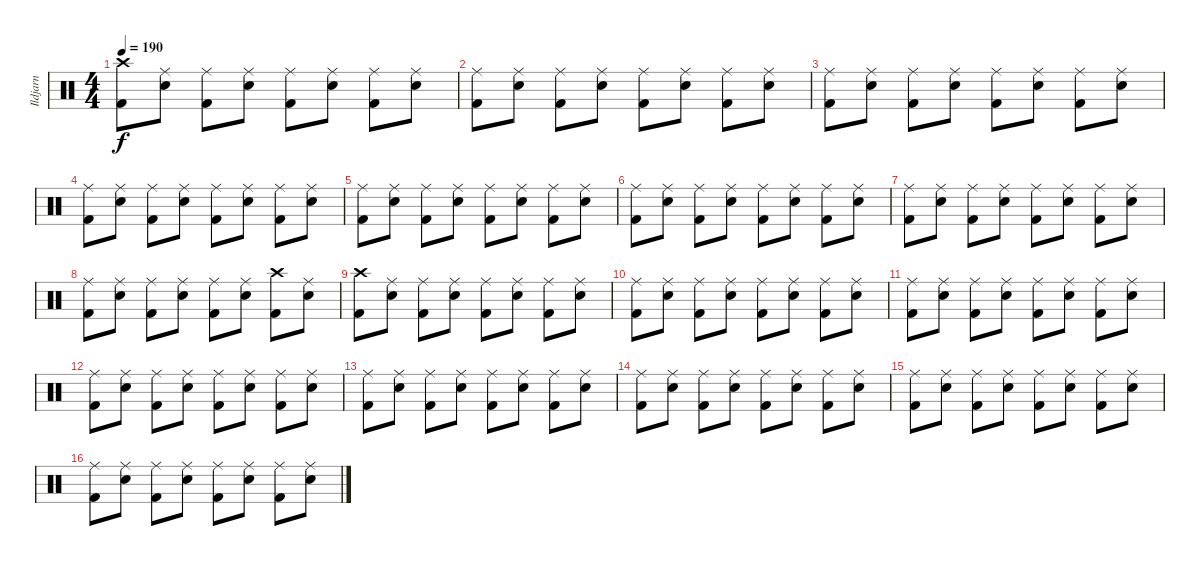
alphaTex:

\track ("Ildjarn" "Ildjarn") {instrument percussion}
\staff {score}
\articulation defaults
\ts (4 4)
\tempo 190
\clef neutral
\ks c
("Crash high (hit)" "Kick (hit) 2").8{dy f} ("Ride (middle)" "Snare (hit) 2").8 ("Ride (middle)" "Kick (hit) 2").8 ("Ride (middle)" "Snare (hit) 2").8 ("Ride (middle)" "Kick (hit) 2").8 ("Ride (middle)" "Snare (hit) 2").8 ("Ride (middle)" "Kick (hit) 2").8 ("Ride (middle)" "Snare (hit) 2").8 |
("Ride (middle)" "Kick (hit) 2").8 ("Ride (middle)" "Snare (hit) 2").8 ("Ride (middle)" "Kick (hit) 2").8 ("Ride (middle)" "Snare (hit) 2").8 ("Ride (middle)" "Kick (hit) 2").8 ("Ride (middle)" "Snare (hit) 2").8 ("Ride (middle)" "Kick (hit) 2").8 ("Ride (middle)" "Snare (hit) 2").8 |
("Ride (middle)" "Kick (hit) 2").8 ("Ride (middle)" "Snare (hit) 2").8 ("Ride (middle)" "Kick (hit) 2").8 ("Ride (middle)" "Snare (hit) 2").8 ("Ride (middle)" "Kick (hit) 2").8 ("Ride (middle)" "Snare (hit) 2").8 ("Ride (middle)" "Kick (hit) 2").8 ("Ride (middle)" "Snare (hit) 2").8 |
("Ride (middle)" "Kick (hit) 2").8 ("Ride (middle)" "Snare (hit) 2").8 ("Ride (middle)" "Kick (hit) 2").8 ("Ride (middle)" "Snare (hit) 2").8 ("Ride (middle)" "Kick (hit) 2").8 ("Ride (middle)" "Snare (hit) 2").8 ("Ride (middle)" "Kick (hit) 2").8 ("Ride (middle)" "Snare (hit) 2").8 |
("Ride (middle)" "Kick (hit) 2").8 ("Ride (middle)" "Snare (hit) 2").8 ("Ride (middle)" "Kick (hit) 2").8 ("Ride (middle)" "Snare (hit) 2").8 ("Ride (middle)" "Kick (hit) 2").8 ("Ride (middle)" "Snare (hit) 2").8 ("Ride (middle)" "Kick (hit) 2").8 ("Ride (middle)" "Snare (hit) 2").8 |
("Ride (middle)" "Kick (hit) 2").8 ("Ride (middle)" "Snare (hit) 2").8 ("Ride (middle)" "Kick (hit) 2").8 ("Ride (middle)" "Snare (hit) 2").8 ("Ride (middle)" "Kick (hit) 2").8 ("Ride (middle)" "Snare (hit) 2").8 ("Ride (middle)" "Kick (hit) 2").8 ("Ride (middle)" "Snare (hit) 2").8 |
("Ride (middle)" "Kick (hit) 2").8 ("Ride (middle)" "Snare (hit) 2").8 ("Ride (middle)" "Kick (hit) 2").8 ("Ride (middle)" "Snare (hit) 2").8 ("Ride (middle)" "Kick (hit) 2").8 ("Ride (middle)" "Snare (hit) 2").8 ("Ride (middle)" "Kick (hit) 2").8 ("Ride (middle)" "Snare (hit) 2").8 |
("Ride (middle)" "Kick (hit) 2").8 ("Ride (middle)" "Snare (hit) 2").8 ("Ride (middle)" "Kick (hit) 2").8 ("Ride (middle)" "Snare (hit) 2").8 ("Ride (middle)" "Kick (hit) 2").8 ("Ride (middle)" "Snare (hit) 2").8 ("Crash high (hit)" "Kick (hit) 2").8 ("Ride (middle)" "Snare (hit) 2").8 |
("Crash high (hit)" "Kick (hit) 2").8{volume 11} ("Ride (middle)" "Snare (hit) 2").8 ("Ride (middle)" "Kick (hit) 2").8 ("Ride (middle)" "Snare (hit) 2").8 ("Ride (middle)" "Kick (hit) 2").8 ("Ride (middle)" "Snare (hit) 2").8 ("Ride (middle)" "Kick (hit) 2").8 ("Ride (middle)" "Snare (hit) 2").8 |
("Ride (middle)" "Kick (hit) 2").8 ("Ride (middle)" "Snare (hit) 2").8 ("Ride (middle)" "Kick (hit) 2").8 ("Ride (middle)" "Snare (hit) 2").8 ("Ride (middle)" "Kick (hit) 2").8 ("Ride (middle)" "Snare (hit) 2").8 ("Ride (middle)" "Kick (hit) 2").8 ("Ride (middle)" "Snare (hit) 2").8 |
("Ride (middle)" "Kick (hit) 2").8{volume 9} ("Ride (middle)" "Snare (hit) 2").8 ("Ride (middle)" "Kick (hit) 2").8 ("Ride (middle)" "Snare (hit) 2").8 ("Ride (middle)" "Kick (hit) 2").8 ("Ride (middle)" "Snare (hit) 2").8 ("Ride (middle)" "Kick (hit) 2").8 ("Ride (middle)" "Snare (hit) 2").8 |
("Ride (middle)" "Kick (hit) 2").8 ("Ride (middle)" "Snare (hit) 2").8 ("Ride (middle)" "Kick (hit) 2").8 ("Ride (middle)" "Snare (hit) 2").8 ("Ride (middle)" "Kick (hit) 2").8 ("Ride (middle)" "Snare (hit) 2").8 ("Ride (middle)" "Kick (hit) 2").8 ("Ride (middle)" "Snare (hit) 2").8 |
("Ride (middle)" "Kick (hit) 2").8{volume 6} ("Ride (middle)" "Snare (hit) 2").8 ("Ride (middle)" "Kick (hit) 2").8 ("Ride (middle)" "Snare (hit) 2").8 ("Ride (middle)" "Kick (hit) 2").8 ("Ride (middle)" "Snare (hit) 2").8 ("Ride (middle)" "Kick (hit) 2").8 ("Ride (middle)" "Snare (hit) 2").8 |
("Ride (middle)" "Kick (hit) 2").8 ("Ride (middle)" "Snare (hit) 2").8 ("Ride (middle)" "Kick (hit) 2").8 ("Ride (middle)" "Snare (hit) 2").8 ("Ride (middle)" "Kick (hit) 2").8 ("Ride (middle)" "Snare (hit) 2").8 ("Ride (middle)" "Kick (hit) 2").8 ("Ride (middle)" "Snare (hit) 2").8 |
("Ride (middle)" "Kick (hit) 2").8{volume 3} ("Ride (middle)" "Snare (hit) 2").8 ("Ride (middle)" "Kick (hit) 2").8 ("Ride (middle)" "Snare (hit) 2").8 ("Ride (middle)" "Kick (hit) 2").8 ("Ride (middle)" "Snare (hit) 2").8 ("Ride (middle)" "Kick (hit) 2").8 ("Ride (middle)" "Snare (hit) 2").8 |
("Ride (middle)" "Kick (hit) 2").8{volume 1} ("Ride (middle)" "Snare (hit) 2").8 ("Ride (middle)" "Kick (hit) 2").8 ("Ride (middle)" "Snare (hit) 2").8 ("Ride (middle)" "Kick (hit) 2").8 ("Ride (middle)" "Snare (hit) 2").8 ("Ride (middle)" "Kick (hit) 2").8 ("Ride (middle)" "Snare (hit) 2").8
